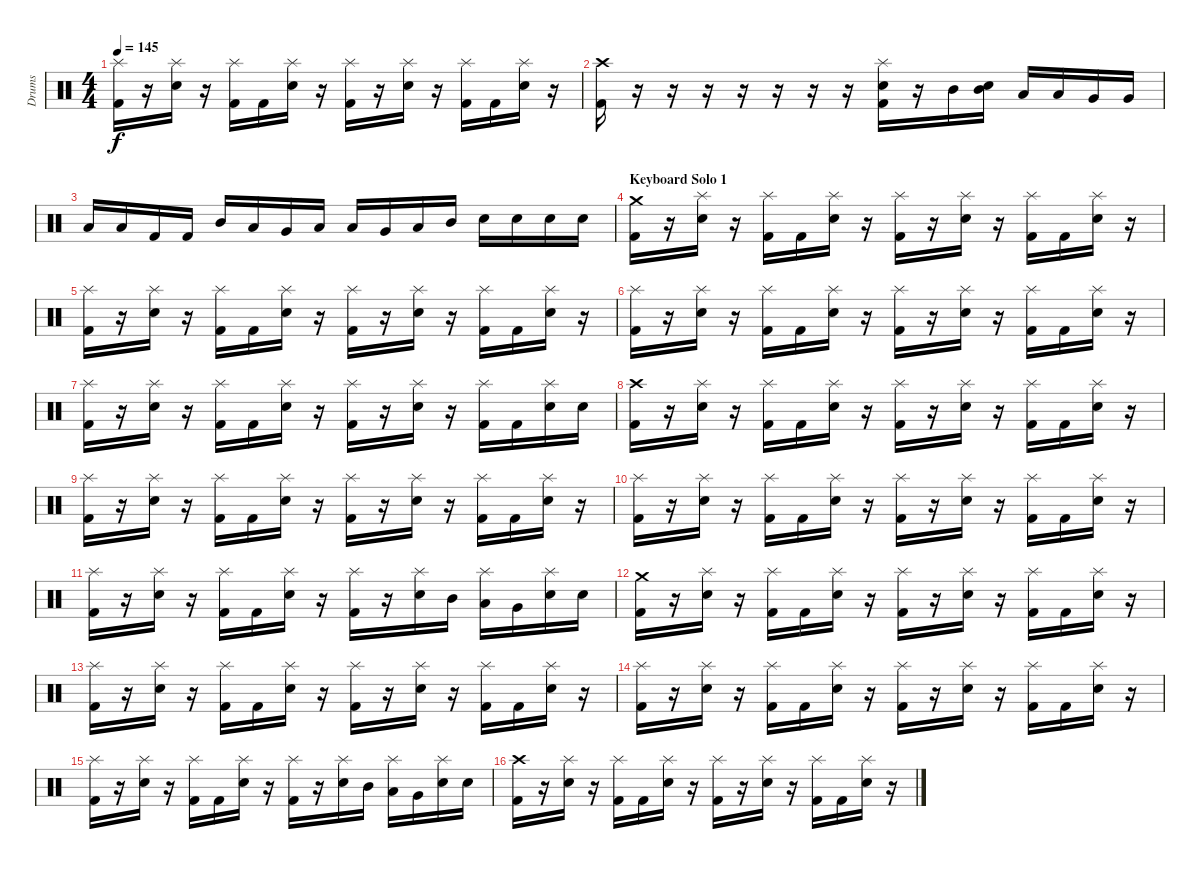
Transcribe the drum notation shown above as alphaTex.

\track ("Drums" "Drums") {instrument percussion}
\staff {score}
\articulation defaults
\ts (4 4)
\tempo 145
\clef neutral
\ks c
("Splash (hit)" "Kick (hit) 2").16{dy f} r.16 ("Splash (hit)" "Snare (hit) 2").16 r.16 ("Splash (hit)" "Kick (hit) 2").16 "Kick (hit) 2".16 ("Splash (hit)" "Snare (hit) 2").16 r.16 ("Splash (hit)" "Kick (hit) 2").16 r.16 ("Splash (hit)" "Snare (hit) 2").16 r.16 ("Splash (hit)" "Kick (hit) 2").16 "Kick (hit) 2".16 ("Splash (hit)" "Snare (hit) 2").16 r.16 |
("Crash high (hit)" "Kick (hit) 2").16 r.16 r.16 r.16 r.16 r.16 r.16 r.16 ("Splash (hit)" "Snare (hit) 2" "Kick (hit) 2").16 r.16 "Mid Tom (hit)".16 ("Mid Tom (hit)" "Snare (hit) 2").16 "Low Tom (hit)".16 "Low Tom (hit)".16 "Very Low Tom (hit)".16 "Very Low Tom (hit)".16 |
"Low Floor Tom (hit)".16 "Low Floor Tom (hit)".16 "Kick (hit) 2".16 "Kick (hit) 2".16 "Mid Tom (hit)".16 "Low Tom (hit)".16 "Very Low Tom (hit)".16 "Low Floor Tom (hit)".16 "Low Floor Tom (hit)".16 "Very Low Tom (hit)".16 "Low Tom (hit)".16 "Mid Tom (hit)".16 "Snare (hit) 2".16 "Snare (hit) 2".16 "Snare (hit) 2".16 "Snare (hit) 2".16 |
\section ("" "Keyboard Solo 1")
("Crash medium (hit)" "Kick (hit) 2").16 r.16 ("Splash (hit)" "Snare (hit) 2").16 r.16 ("Splash (hit)" "Kick (hit) 2").16 "Kick (hit) 2".16 ("Splash (hit)" "Snare (hit) 2").16 r.16 ("Splash (hit)" "Kick (hit) 2").16 r.16 ("Splash (hit)" "Snare (hit) 2").16 r.16 ("Splash (hit)" "Kick (hit) 2").16 "Kick (hit) 2".16 ("Splash (hit)" "Snare (hit) 2").16 r.16 |
("Splash (hit)" "Kick (hit) 2").16 r.16 ("Splash (hit)" "Snare (hit) 2").16 r.16 ("Splash (hit)" "Kick (hit) 2").16 "Kick (hit) 2".16 ("Splash (hit)" "Snare (hit) 2").16 r.16 ("Splash (hit)" "Kick (hit) 2").16 r.16 ("Splash (hit)" "Snare (hit) 2").16 r.16 ("Splash (hit)" "Kick (hit) 2").16 "Kick (hit) 2".16 ("Splash (hit)" "Snare (hit) 2").16 r.16 |
("Splash (hit)" "Kick (hit) 2").16 r.16 ("Splash (hit)" "Snare (hit) 2").16 r.16 ("Splash (hit)" "Kick (hit) 2").16 "Kick (hit) 2".16 ("Splash (hit)" "Snare (hit) 2").16 r.16 ("Splash (hit)" "Kick (hit) 2").16 r.16 ("Splash (hit)" "Snare (hit) 2").16 r.16 ("Splash (hit)" "Kick (hit) 2").16 "Kick (hit) 2".16 ("Splash (hit)" "Snare (hit) 2").16 r.16 |
("Splash (hit)" "Kick (hit) 2").16 r.16 ("Splash (hit)" "Snare (hit) 2").16 r.16 ("Splash (hit)" "Kick (hit) 2").16 "Kick (hit) 2".16 ("Splash (hit)" "Snare (hit) 2").16 r.16 ("Splash (hit)" "Kick (hit) 2").16 r.16 ("Splash (hit)" "Snare (hit) 2").16 r.16 ("Splash (hit)" "Kick (hit) 2").16 "Kick (hit) 2".16 ("Splash (hit)" "Snare (hit) 2").16 "Snare (hit) 2".16 |
("Crash high (hit)" "Kick (hit) 2").16 r.16 ("Splash (hit)" "Snare (hit) 2").16 r.16 ("Splash (hit)" "Kick (hit) 2").16 "Kick (hit) 2".16 ("Splash (hit)" "Snare (hit) 2").16 r.16 ("Splash (hit)" "Kick (hit) 2").16 r.16 ("Splash (hit)" "Snare (hit) 2").16 r.16 ("Splash (hit)" "Kick (hit) 2").16 "Kick (hit) 2".16 ("Splash (hit)" "Snare (hit) 2").16 r.16 |
("Splash (hit)" "Kick (hit) 2").16 r.16 ("Splash (hit)" "Snare (hit) 2").16 r.16 ("Splash (hit)" "Kick (hit) 2").16 "Kick (hit) 2".16 ("Splash (hit)" "Snare (hit) 2").16 r.16 ("Splash (hit)" "Kick (hit) 2").16 r.16 ("Splash (hit)" "Snare (hit) 2").16 r.16 ("Splash (hit)" "Kick (hit) 2").16 "Kick (hit) 2".16 ("Splash (hit)" "Snare (hit) 2").16 r.16 |
("Splash (hit)" "Kick (hit) 2").16 r.16 ("Splash (hit)" "Snare (hit) 2").16 r.16 ("Splash (hit)" "Kick (hit) 2").16 "Kick (hit) 2".16 ("Splash (hit)" "Snare (hit) 2").16 r.16 ("Splash (hit)" "Kick (hit) 2").16 r.16 ("Splash (hit)" "Snare (hit) 2").16 r.16 ("Splash (hit)" "Kick (hit) 2").16 "Kick (hit) 2".16 ("Splash (hit)" "Snare (hit) 2").16 r.16 |
("Splash (hit)" "Kick (hit) 2").16 r.16 ("Splash (hit)" "Snare (hit) 2").16 r.16 ("Splash (hit)" "Kick (hit) 2").16 "Kick (hit) 2".16 ("Splash (hit)" "Snare (hit) 2").16 r.16 ("Splash (hit)" "Kick (hit) 2").16 r.16 ("Splash (hit)" "Snare (hit) 2").16 "Mid Tom (hit)".16 ("Splash (hit)" "Low Tom (hit)").16 "Very Low Tom (hit)".16 ("Splash (hit)" "Snare (hit) 2").16 "Snare (hit) 2".16 |
("Crash medium (hit)" "Kick (hit) 2").16 r.16 ("Splash (hit)" "Snare (hit) 2").16 r.16 ("Splash (hit)" "Kick (hit) 2").16 "Kick (hit) 2".16 ("Splash (hit)" "Snare (hit) 2").16 r.16 ("Splash (hit)" "Kick (hit) 2").16 r.16 ("Splash (hit)" "Snare (hit) 2").16 r.16 ("Splash (hit)" "Kick (hit) 2").16 "Kick (hit) 2".16 ("Splash (hit)" "Snare (hit) 2").16 r.16 |
("Splash (hit)" "Kick (hit) 2").16 r.16 ("Splash (hit)" "Snare (hit) 2").16 r.16 ("Splash (hit)" "Kick (hit) 2").16 "Kick (hit) 2".16 ("Splash (hit)" "Snare (hit) 2").16 r.16 ("Splash (hit)" "Kick (hit) 2").16 r.16 ("Splash (hit)" "Snare (hit) 2").16 r.16 ("Splash (hit)" "Kick (hit) 2").16 "Kick (hit) 2".16 ("Splash (hit)" "Snare (hit) 2").16 r.16 |
("Splash (hit)" "Kick (hit) 2").16 r.16 ("Splash (hit)" "Snare (hit) 2").16 r.16 ("Splash (hit)" "Kick (hit) 2").16 "Kick (hit) 2".16 ("Splash (hit)" "Snare (hit) 2").16 r.16 ("Splash (hit)" "Kick (hit) 2").16 r.16 ("Splash (hit)" "Snare (hit) 2").16 r.16 ("Splash (hit)" "Kick (hit) 2").16 "Kick (hit) 2".16 ("Splash (hit)" "Snare (hit) 2").16 r.16 |
("Splash (hit)" "Kick (hit) 2").16 r.16 ("Splash (hit)" "Snare (hit) 2").16 r.16 ("Splash (hit)" "Kick (hit) 2").16 "Kick (hit) 2".16 ("Splash (hit)" "Snare (hit) 2").16 r.16 ("Splash (hit)" "Kick (hit) 2").16 r.16 ("Splash (hit)" "Snare (hit) 2").16 "Mid Tom (hit)".16 ("Splash (hit)" "Low Tom (hit)").16 "Very Low Tom (hit)".16 ("Splash (hit)" "Snare (hit) 2").16 "Snare (hit) 2".16 |
("Crash high (hit)" "Kick (hit) 2").16 r.16 ("Splash (hit)" "Snare (hit) 2").16 r.16 ("Splash (hit)" "Kick (hit) 2").16 "Kick (hit) 2".16 ("Splash (hit)" "Snare (hit) 2").16 r.16 ("Splash (hit)" "Kick (hit) 2").16 r.16 ("Splash (hit)" "Snare (hit) 2").16 r.16 ("Splash (hit)" "Kick (hit) 2").16 "Kick (hit) 2".16 ("Splash (hit)" "Snare (hit) 2").16 r.16
